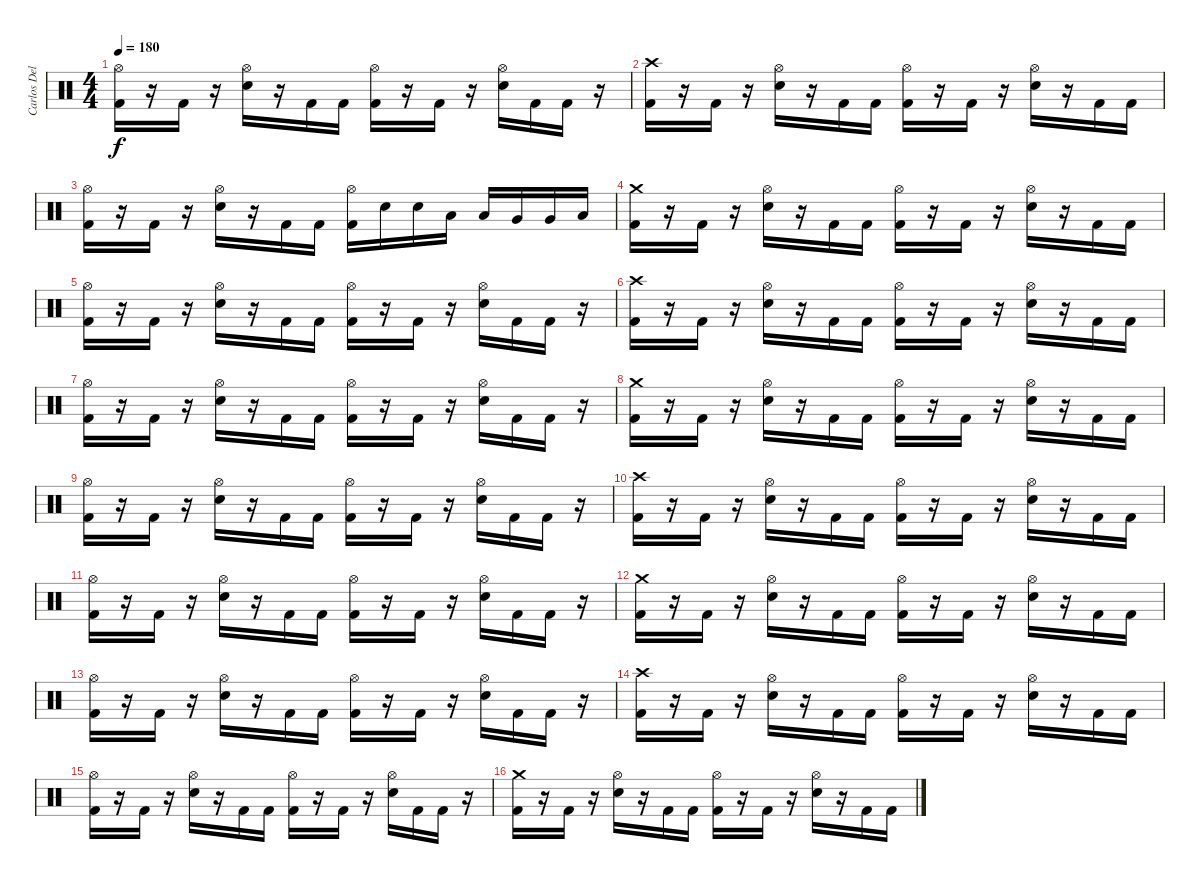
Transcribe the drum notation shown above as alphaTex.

\track ("Carlos Delgado" "Carlos Del") {instrument percussion}
\staff {score}
\articulation defaults
\ts (4 4)
\tempo 180
\clef neutral
\ks c
("Kick (hit) 2" "Hi-Hat (open)").16{dy f} r.16 "Kick (hit) 2".16 r.16 ("Hi-Hat (open)" "Electric Snare (hit)").16 r.16 "Kick (hit) 2".16 "Kick (hit) 2".16 ("Hi-Hat (open)" "Kick (hit) 2").16 r.16 "Kick (hit) 2".16 r.16 ("Electric Snare (hit)" "Hi-Hat (open)").16 "Kick (hit) 2".16 "Kick (hit) 2".16 r.16 |
("Crash high (hit)" "Kick (hit) 2").16 r.16 "Kick (hit) 2".16 r.16 ("Hi-Hat (open)" "Electric Snare (hit)").16 r.16 "Kick (hit) 2".16 "Kick (hit) 2".16 ("Kick (hit) 2" "Hi-Hat (open)").16 r.16 "Kick (hit) 2".16 r.16 ("Electric Snare (hit)" "Hi-Hat (open)").16 r.16 "Kick (hit) 2".16 "Kick (hit) 2".16 |
("Kick (hit) 2" "Hi-Hat (open)").16 r.16 "Kick (hit) 2".16 r.16 ("Hi-Hat (open)" "Electric Snare (hit)").16 r.16 "Kick (hit) 2".16 "Kick (hit) 2".16 ("Hi-Hat (open)" "Kick (hit) 2").16 "Electric Snare (hit)".16 "Electric Snare (hit)".16 "Low Tom (hit)".16 "Low Tom (hit)".16 "Very Low Tom (hit)".16 "Very Low Tom (hit)".16 "Low Floor Tom (hit)".16 |
("Crash medium (hit)" "Kick (hit) 2").16 r.16 "Kick (hit) 2".16 r.16 ("Hi-Hat (open)" "Electric Snare (hit)").16 r.16 "Kick (hit) 2".16 "Kick (hit) 2".16 ("Kick (hit) 2" "Hi-Hat (open)").16 r.16 "Kick (hit) 2".16 r.16 ("Electric Snare (hit)" "Hi-Hat (open)").16 r.16 "Kick (hit) 2".16 "Kick (hit) 2".16 |
("Kick (hit) 2" "Hi-Hat (open)").16 r.16 "Kick (hit) 2".16 r.16 ("Hi-Hat (open)" "Electric Snare (hit)").16 r.16 "Kick (hit) 2".16 "Kick (hit) 2".16 ("Hi-Hat (open)" "Kick (hit) 2").16 r.16 "Kick (hit) 2".16 r.16 ("Electric Snare (hit)" "Hi-Hat (open)").16 "Kick (hit) 2".16 "Kick (hit) 2".16 r.16 |
("Crash high (hit)" "Kick (hit) 2").16 r.16 "Kick (hit) 2".16 r.16 ("Hi-Hat (open)" "Electric Snare (hit)").16 r.16 "Kick (hit) 2".16 "Kick (hit) 2".16 ("Kick (hit) 2" "Hi-Hat (open)").16 r.16 "Kick (hit) 2".16 r.16 ("Electric Snare (hit)" "Hi-Hat (open)").16 r.16 "Kick (hit) 2".16 "Kick (hit) 2".16 |
("Kick (hit) 2" "Hi-Hat (open)").16 r.16 "Kick (hit) 2".16 r.16 ("Hi-Hat (open)" "Electric Snare (hit)").16 r.16 "Kick (hit) 2".16 "Kick (hit) 2".16 ("Hi-Hat (open)" "Kick (hit) 2").16 r.16 "Kick (hit) 2".16 r.16 ("Electric Snare (hit)" "Hi-Hat (open)").16 "Kick (hit) 2".16 "Kick (hit) 2".16 r.16 |
("Crash medium (hit)" "Kick (hit) 2").16 r.16 "Kick (hit) 2".16 r.16 ("Hi-Hat (open)" "Electric Snare (hit)").16 r.16 "Kick (hit) 2".16 "Kick (hit) 2".16 ("Kick (hit) 2" "Hi-Hat (open)").16 r.16 "Kick (hit) 2".16 r.16 ("Electric Snare (hit)" "Hi-Hat (open)").16 r.16 "Kick (hit) 2".16 "Kick (hit) 2".16 |
("Kick (hit) 2" "Hi-Hat (open)").16 r.16 "Kick (hit) 2".16 r.16 ("Hi-Hat (open)" "Electric Snare (hit)").16 r.16 "Kick (hit) 2".16 "Kick (hit) 2".16 ("Hi-Hat (open)" "Kick (hit) 2").16 r.16 "Kick (hit) 2".16 r.16 ("Electric Snare (hit)" "Hi-Hat (open)").16 "Kick (hit) 2".16 "Kick (hit) 2".16 r.16 |
("Crash high (hit)" "Kick (hit) 2").16 r.16 "Kick (hit) 2".16 r.16 ("Hi-Hat (open)" "Electric Snare (hit)").16 r.16 "Kick (hit) 2".16 "Kick (hit) 2".16 ("Kick (hit) 2" "Hi-Hat (open)").16 r.16 "Kick (hit) 2".16 r.16 ("Electric Snare (hit)" "Hi-Hat (open)").16 r.16 "Kick (hit) 2".16 "Kick (hit) 2".16 |
("Kick (hit) 2" "Hi-Hat (open)").16 r.16 "Kick (hit) 2".16 r.16 ("Hi-Hat (open)" "Electric Snare (hit)").16 r.16 "Kick (hit) 2".16 "Kick (hit) 2".16 ("Hi-Hat (open)" "Kick (hit) 2").16 r.16 "Kick (hit) 2".16 r.16 ("Electric Snare (hit)" "Hi-Hat (open)").16 "Kick (hit) 2".16 "Kick (hit) 2".16 r.16 |
("Crash medium (hit)" "Kick (hit) 2").16 r.16 "Kick (hit) 2".16 r.16 ("Hi-Hat (open)" "Electric Snare (hit)").16 r.16 "Kick (hit) 2".16 "Kick (hit) 2".16 ("Kick (hit) 2" "Hi-Hat (open)").16 r.16 "Kick (hit) 2".16 r.16 ("Electric Snare (hit)" "Hi-Hat (open)").16 r.16 "Kick (hit) 2".16 "Kick (hit) 2".16 |
("Kick (hit) 2" "Hi-Hat (open)").16 r.16 "Kick (hit) 2".16 r.16 ("Hi-Hat (open)" "Electric Snare (hit)").16 r.16 "Kick (hit) 2".16 "Kick (hit) 2".16 ("Hi-Hat (open)" "Kick (hit) 2").16 r.16 "Kick (hit) 2".16 r.16 ("Electric Snare (hit)" "Hi-Hat (open)").16 "Kick (hit) 2".16 "Kick (hit) 2".16 r.16 |
("Crash high (hit)" "Kick (hit) 2").16 r.16 "Kick (hit) 2".16 r.16 ("Hi-Hat (open)" "Electric Snare (hit)").16 r.16 "Kick (hit) 2".16 "Kick (hit) 2".16 ("Kick (hit) 2" "Hi-Hat (open)").16 r.16 "Kick (hit) 2".16 r.16 ("Electric Snare (hit)" "Hi-Hat (open)").16 r.16 "Kick (hit) 2".16 "Kick (hit) 2".16 |
("Kick (hit) 2" "Hi-Hat (open)").16 r.16 "Kick (hit) 2".16 r.16 ("Hi-Hat (open)" "Electric Snare (hit)").16 r.16 "Kick (hit) 2".16 "Kick (hit) 2".16 ("Hi-Hat (open)" "Kick (hit) 2").16 r.16 "Kick (hit) 2".16 r.16 ("Electric Snare (hit)" "Hi-Hat (open)").16 "Kick (hit) 2".16 "Kick (hit) 2".16 r.16 |
("Crash medium (hit)" "Kick (hit) 2").16 r.16 "Kick (hit) 2".16 r.16 ("Hi-Hat (open)" "Electric Snare (hit)").16 r.16 "Kick (hit) 2".16 "Kick (hit) 2".16 ("Kick (hit) 2" "Hi-Hat (open)").16 r.16 "Kick (hit) 2".16 r.16 ("Electric Snare (hit)" "Hi-Hat (open)").16 r.16 "Kick (hit) 2".16 "Kick (hit) 2".16
